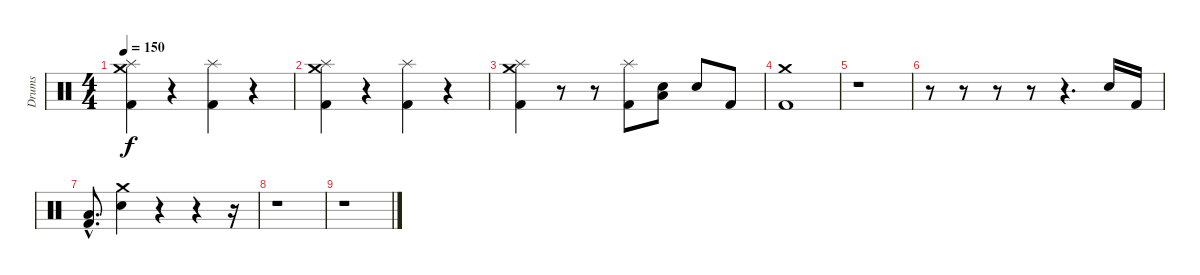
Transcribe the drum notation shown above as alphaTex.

\track ("Drums" "Drums") {instrument percussion}
\staff {score}
\articulation defaults
\ts (4 4)
\tempo 150
\clef neutral
\ks c
("Crash medium (hit)" "Splash (hit)" "Kick (hit) 2").4{dy f} r.4 ("Splash (hit)" "Kick (hit) 2").4 r.4 |
("Crash medium (hit)" "Splash (hit)" "Kick (hit) 2").4 r.4 ("Splash (hit)" "Kick (hit) 2").4 r.4 |
("Crash medium (hit)" "Splash (hit)" "Kick (hit) 2").4 r.8 r.8 ("Splash (hit)" "Kick (hit) 2").8 ("Low Floor Tom (hit)" "Electric Snare (hit)").8 "Electric Snare (hit)".8 "Kick (hit) 2".8 |
("Crash medium (hit)" "Kick (hit) 2").1 |
r.1 |
r.8 r.8 r.8 r.8 r.4{d} "Electric Snare (hit)".16 "Kick (hit) 2".16 |
("Low Floor Tom (hit)"{hac} "Kick (hit) 2"{hac}).8{d} ("Crash medium (hit)" "Electric Snare (hit)").4 r.4 r.4 r.16 |
r.1 |
r.1
